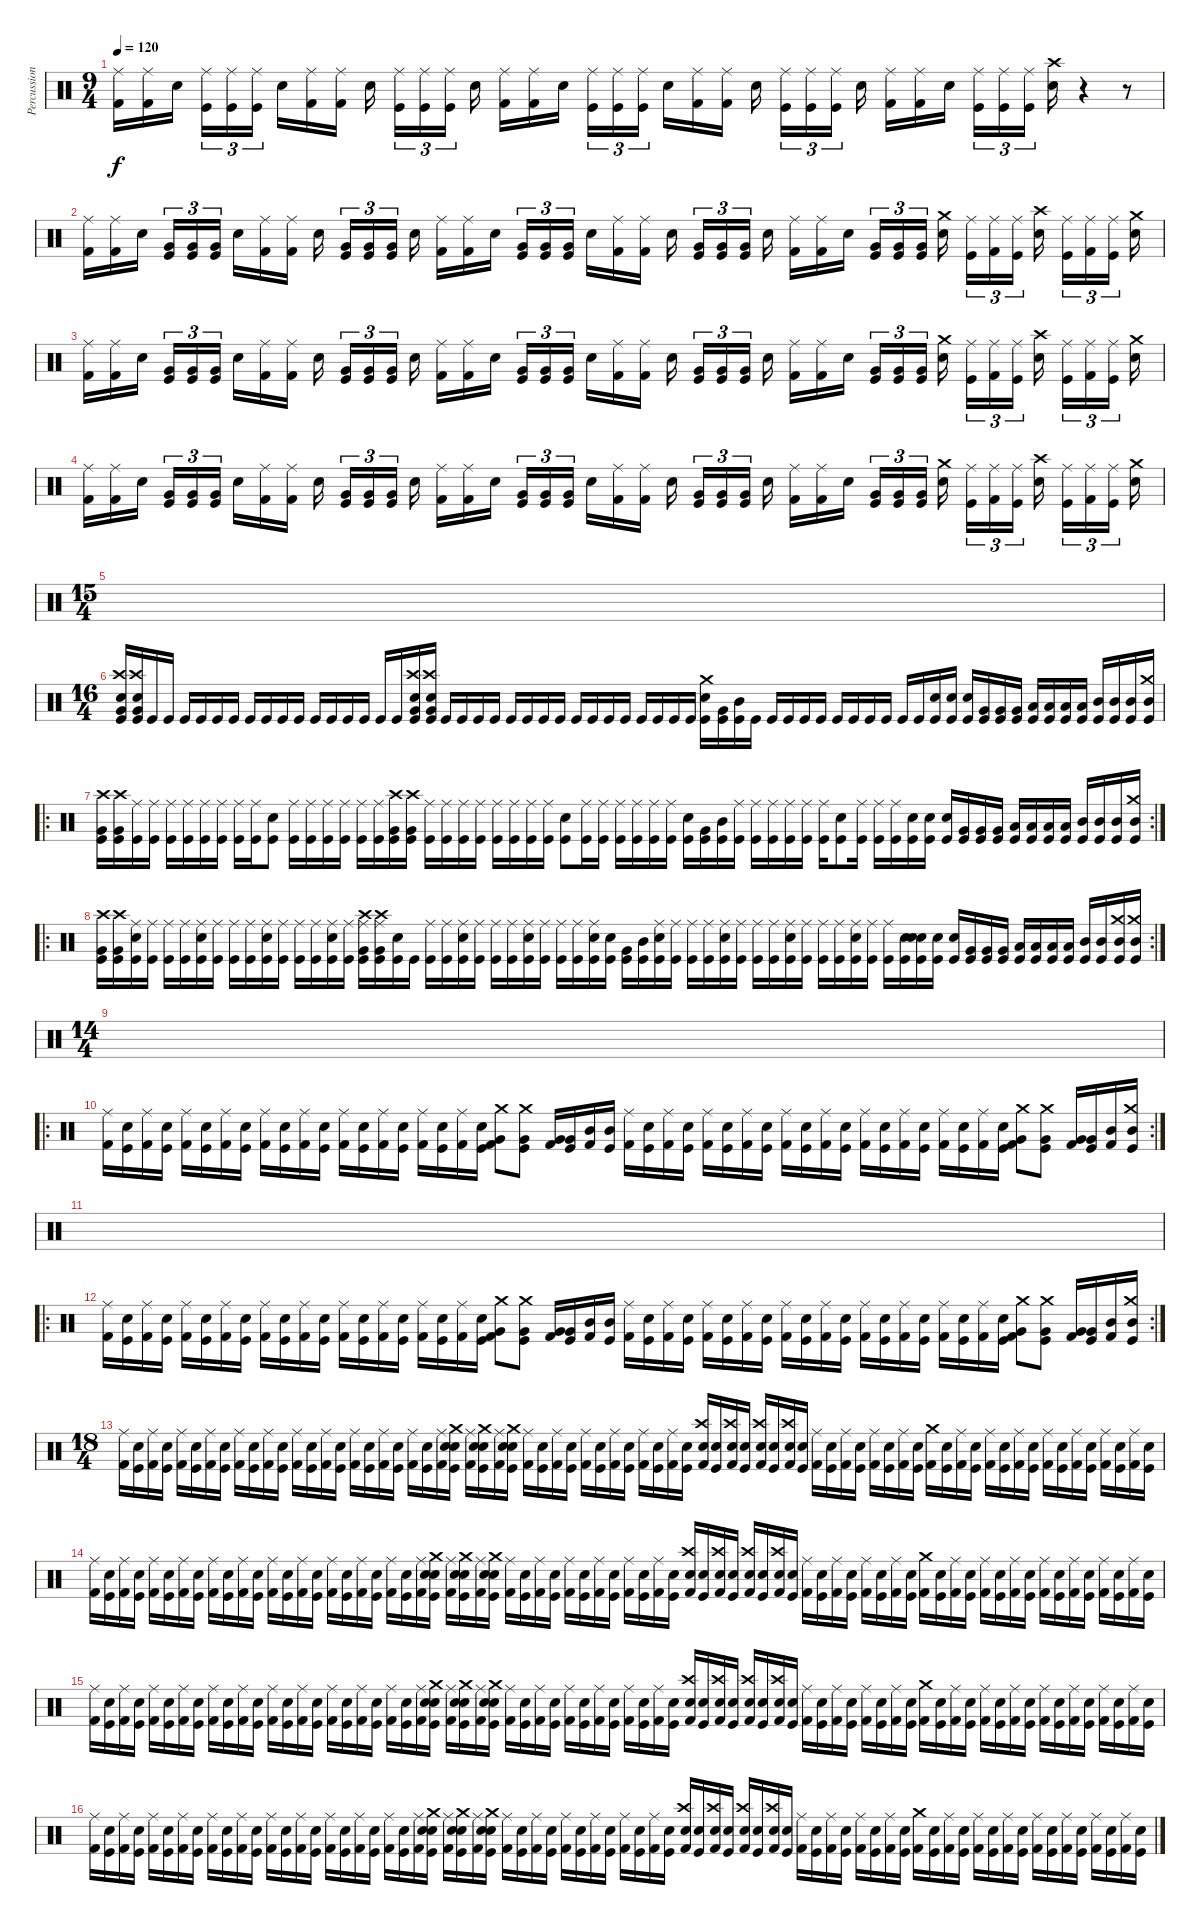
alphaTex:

\track ("Percussions" "Percussion") {instrument percussion}
\staff {score}
\articulation defaults
\ts (9 4)
\tempo 120
\clef neutral
\ks c
("Kick (hit) 2" "Ride (middle)").16{dy f} ("Kick (hit) 2" "Ride (middle)").16 "Electric Snare (hit)".16 ("Kick (hit)" "Ride (middle)").16{tu (3 2)} ("Kick (hit)" "Ride (middle)").16{tu (3 2)} ("Kick (hit)" "Ride (middle)").16{tu (3 2)} "Electric Snare (hit)".16 ("Kick (hit) 2" "Ride (middle)").16 ("Kick (hit) 2" "Ride (middle)").16 "Electric Snare (hit)".16 ("Kick (hit)" "Ride (middle)").16{tu (3 2)} ("Kick (hit)" "Ride (middle)").16{tu (3 2)} ("Kick (hit)" "Ride (middle)").16{tu (3 2)} "Electric Snare (hit)".16 ("Kick (hit) 2" "Ride (middle)").16 ("Kick (hit) 2" "Ride (middle)").16 "Electric Snare (hit)".16 ("Kick (hit)" "Ride (middle)").16{tu (3 2)} ("Kick (hit)" "Ride (middle)").16{tu (3 2)} ("Kick (hit)" "Ride (middle)").16{tu (3 2)} "Electric Snare (hit)".16 ("Kick (hit) 2" "Ride (middle)").16 ("Kick (hit) 2" "Ride (middle)").16 "Electric Snare (hit)".16 ("Kick (hit)" "Ride (middle)").16{tu (3 2)} ("Kick (hit)" "Ride (middle)").16{tu (3 2)} ("Kick (hit)" "Ride (middle)").16{tu (3 2)} "Electric Snare (hit)".16 ("Kick (hit) 2" "Ride (middle)").16 ("Kick (hit) 2" "Ride (middle)").16 "Electric Snare (hit)".16 ("Kick (hit)" "Ride (middle)").16{tu (3 2)} ("Kick (hit)" "Ride (middle)").16{tu (3 2)} ("Kick (hit)" "Ride (middle)").16{tu (3 2)} ("Electric Snare (hit)" "Crash high (hit)").16 r.4 r.8 |
("Kick (hit) 2" "Ride (middle)").16 ("Kick (hit) 2" "Ride (middle)").16 "Electric Snare (hit)".16 ("Kick (hit)" "Very Low Tom (hit)").16{tu (3 2)} ("Kick (hit)" "Very Low Tom (hit)").16{tu (3 2)} ("Kick (hit)" "Very Low Tom (hit)").16{tu (3 2)} "Electric Snare (hit)".16 ("Kick (hit) 2" "Ride (middle)").16 ("Kick (hit) 2" "Ride (middle)").16 "Electric Snare (hit)".16 ("Kick (hit)" "Very Low Tom (hit)").16{tu (3 2)} ("Kick (hit)" "Very Low Tom (hit)").16{tu (3 2)} ("Kick (hit)" "Very Low Tom (hit)").16{tu (3 2)} "Electric Snare (hit)".16 ("Kick (hit) 2" "Ride (middle)").16 ("Kick (hit) 2" "Ride (middle)").16 "Electric Snare (hit)".16 ("Kick (hit)" "Very Low Tom (hit)").16{tu (3 2)} ("Kick (hit)" "Very Low Tom (hit)").16{tu (3 2)} ("Kick (hit)" "Very Low Tom (hit)").16{tu (3 2)} "Electric Snare (hit)".16 ("Kick (hit) 2" "Ride (middle)").16 ("Kick (hit) 2" "Ride (middle)").16 "Electric Snare (hit)".16 ("Kick (hit)" "Very Low Tom (hit)").16{tu (3 2)} ("Kick (hit)" "Very Low Tom (hit)").16{tu (3 2)} ("Kick (hit)" "Very Low Tom (hit)").16{tu (3 2)} "Electric Snare (hit)".16 ("Kick (hit) 2" "Ride (middle)").16 ("Kick (hit) 2" "Ride (middle)").16 "Electric Snare (hit)".16 ("Kick (hit)" "Very Low Tom (hit)").16{tu (3 2)} ("Kick (hit)" "Very Low Tom (hit)").16{tu (3 2)} ("Kick (hit)" "Very Low Tom (hit)").16{tu (3 2)} ("Electric Snare (hit)" "Crash medium (hit)").16 ("Kick (hit)" "Ride (middle)").16{tu (3 2)} ("Kick (hit) 2" "Ride (middle)").16{tu (3 2)} ("Kick (hit)" "Ride (middle)").16{tu (3 2)} ("Electric Snare (hit)" "Crash high (hit)").16 ("Kick (hit)" "Ride (middle)").16{tu (3 2)} ("Kick (hit) 2" "Ride (middle)").16{tu (3 2)} ("Kick (hit)" "Ride (middle)").16{tu (3 2)} ("Electric Snare (hit)" "Crash medium (hit)").16 |
("Kick (hit) 2" "Ride (middle)").16 ("Kick (hit) 2" "Ride (middle)").16 "Electric Snare (hit)".16 ("Kick (hit)" "Very Low Tom (hit)").16{tu (3 2)} ("Kick (hit)" "Very Low Tom (hit)").16{tu (3 2)} ("Kick (hit)" "Very Low Tom (hit)").16{tu (3 2)} "Electric Snare (hit)".16 ("Kick (hit) 2" "Ride (middle)").16 ("Kick (hit) 2" "Ride (middle)").16 "Electric Snare (hit)".16 ("Kick (hit)" "Very Low Tom (hit)").16{tu (3 2)} ("Kick (hit)" "Very Low Tom (hit)").16{tu (3 2)} ("Kick (hit)" "Very Low Tom (hit)").16{tu (3 2)} "Electric Snare (hit)".16 ("Kick (hit) 2" "Ride (middle)").16 ("Kick (hit) 2" "Ride (middle)").16 "Electric Snare (hit)".16 ("Kick (hit)" "Very Low Tom (hit)").16{tu (3 2)} ("Kick (hit)" "Very Low Tom (hit)").16{tu (3 2)} ("Kick (hit)" "Very Low Tom (hit)").16{tu (3 2)} "Electric Snare (hit)".16 ("Kick (hit) 2" "Ride (middle)").16 ("Kick (hit) 2" "Ride (middle)").16 "Electric Snare (hit)".16 ("Kick (hit)" "Very Low Tom (hit)").16{tu (3 2)} ("Kick (hit)" "Very Low Tom (hit)").16{tu (3 2)} ("Kick (hit)" "Very Low Tom (hit)").16{tu (3 2)} "Electric Snare (hit)".16 ("Kick (hit) 2" "Ride (middle)").16 ("Kick (hit) 2" "Ride (middle)").16 "Electric Snare (hit)".16 ("Kick (hit)" "Very Low Tom (hit)").16{tu (3 2)} ("Kick (hit)" "Very Low Tom (hit)").16{tu (3 2)} ("Kick (hit)" "Very Low Tom (hit)").16{tu (3 2)} ("Electric Snare (hit)" "Crash medium (hit)").16 ("Kick (hit)" "Ride (middle)").16{tu (3 2)} ("Kick (hit) 2" "Ride (middle)").16{tu (3 2)} ("Kick (hit)" "Ride (middle)").16{tu (3 2)} ("Electric Snare (hit)" "Crash high (hit)").16 ("Kick (hit)" "Ride (middle)").16{tu (3 2)} ("Kick (hit) 2" "Ride (middle)").16{tu (3 2)} ("Kick (hit)" "Ride (middle)").16{tu (3 2)} ("Electric Snare (hit)" "Crash medium (hit)").16 |
("Kick (hit) 2" "Ride (middle)").16 ("Kick (hit) 2" "Ride (middle)").16 "Electric Snare (hit)".16 ("Kick (hit)" "Very Low Tom (hit)").16{tu (3 2)} ("Kick (hit)" "Very Low Tom (hit)").16{tu (3 2)} ("Kick (hit)" "Very Low Tom (hit)").16{tu (3 2)} "Electric Snare (hit)".16 ("Kick (hit) 2" "Ride (middle)").16 ("Kick (hit) 2" "Ride (middle)").16 "Electric Snare (hit)".16 ("Kick (hit)" "Very Low Tom (hit)").16{tu (3 2)} ("Kick (hit)" "Very Low Tom (hit)").16{tu (3 2)} ("Kick (hit)" "Very Low Tom (hit)").16{tu (3 2)} "Electric Snare (hit)".16 ("Kick (hit) 2" "Ride (middle)").16 ("Kick (hit) 2" "Ride (middle)").16 "Electric Snare (hit)".16 ("Kick (hit)" "Very Low Tom (hit)").16{tu (3 2)} ("Kick (hit)" "Very Low Tom (hit)").16{tu (3 2)} ("Kick (hit)" "Very Low Tom (hit)").16{tu (3 2)} "Electric Snare (hit)".16 ("Kick (hit) 2" "Ride (middle)").16 ("Kick (hit) 2" "Ride (middle)").16 "Electric Snare (hit)".16 ("Kick (hit)" "Very Low Tom (hit)").16{tu (3 2)} ("Kick (hit)" "Very Low Tom (hit)").16{tu (3 2)} ("Kick (hit)" "Very Low Tom (hit)").16{tu (3 2)} "Electric Snare (hit)".16 ("Kick (hit) 2" "Ride (middle)").16 ("Kick (hit) 2" "Ride (middle)").16 "Electric Snare (hit)".16 ("Kick (hit)" "Very Low Tom (hit)").16{tu (3 2)} ("Kick (hit)" "Very Low Tom (hit)").16{tu (3 2)} ("Kick (hit)" "Very Low Tom (hit)").16{tu (3 2)} ("Electric Snare (hit)" "Crash medium (hit)").16 ("Kick (hit)" "Ride (middle)").16{tu (3 2)} ("Kick (hit) 2" "Ride (middle)").16{tu (3 2)} ("Kick (hit)" "Ride (middle)").16{tu (3 2)} ("Electric Snare (hit)" "Crash high (hit)").16 ("Kick (hit)" "Ride (middle)").16{tu (3 2)} ("Kick (hit) 2" "Ride (middle)").16{tu (3 2)} ("Kick (hit)" "Ride (middle)").16{tu (3 2)} ("Electric Snare (hit)" "Crash medium (hit)").16 |
\ts (15 4)
|
\ts (16 4)
("Kick (hit)" "Electric Snare (hit)" "Very Low Tom (hit)" "Crash high (hit)").16 ("Kick (hit)" "Electric Snare (hit)" "Very Low Tom (hit)" "Crash high (hit)").16 "Kick (hit)".16 "Kick (hit)".16 "Kick (hit)".16 "Kick (hit)".16 "Kick (hit)".16 "Kick (hit)".16 "Kick (hit)".16 "Kick (hit)".16 "Kick (hit)".16 "Kick (hit)".16 "Kick (hit)".16 "Kick (hit)".16 "Kick (hit)".16 "Kick (hit)".16 "Kick (hit)".16 "Kick (hit)".16 ("Kick (hit)" "Electric Snare (hit)" "Very Low Tom (hit)" "Crash high (hit)").16 ("Kick (hit)" "Electric Snare (hit)" "Very Low Tom (hit)" "Crash high (hit)").16 "Kick (hit)".16 "Kick (hit)".16 "Kick (hit)".16 "Kick (hit)".16 "Kick (hit)".16 "Kick (hit)".16 "Kick (hit)".16 "Kick (hit)".16 "Kick (hit)".16 "Kick (hit)".16 "Kick (hit)".16 "Kick (hit)".16 "Kick (hit)".16 "Kick (hit)".16 "Kick (hit)".16 "Kick (hit)".16 ("Kick (hit)" "Electric Snare (hit)" "Crash medium (hit)").16 ("Kick (hit)" "Very Low Tom (hit)").16 ("Kick (hit)" "Mid Tom (hit)").16 "Kick (hit)".16 "Kick (hit)".16 "Kick (hit)".16 "Kick (hit)".16 "Kick (hit)".16 "Kick (hit)".16 "Kick (hit)".16 "Kick (hit)".16 "Kick (hit)".16 "Kick (hit)".16 "Kick (hit)".16 ("Kick (hit)" "Snare (hit) 2").16 ("Kick (hit)" "Snare (hit) 2").16 ("Kick (hit)" "Snare (hit) 2").16 ("Kick (hit)" "Very Low Tom (hit)").16 ("Kick (hit)" "Very Low Tom (hit)").16 ("Kick (hit)" "Very Low Tom (hit)").16 ("Kick (hit)" "Low Tom (hit)").16 ("Kick (hit)" "Low Tom (hit)").16 ("Kick (hit)" "Low Tom (hit)").16 ("Kick (hit)" "Low Tom (hit)").16 ("Kick (hit)" "Mid Tom (hit)").16 ("Kick (hit)" "Mid Tom (hit)").16 ("Kick (hit)" "Mid Tom (hit)").16 ("Kick (hit)" "Mid Tom (hit)" "Crash medium (hit)").16 |
\ro
\rc 2
("Kick (hit)" "Very Low Tom (hit)" "Crash high (hit)").16 ("Kick (hit)" "Very Low Tom (hit)" "Crash high (hit)").16 ("Kick (hit)" "Ride (middle)").16 ("Kick (hit)" "Ride (middle)").16 ("Kick (hit)" "Ride (middle)").16 ("Kick (hit)" "Ride (middle)").16 ("Kick (hit)" "Ride (middle)").16 ("Kick (hit)" "Ride (middle)").16 ("Kick (hit)" "Ride (middle)").16 ("Kick (hit)" "Ride (middle)").16 ("Kick (hit)" "Electric Snare (hit)").8 ("Kick (hit)" "Ride (middle)").16 ("Kick (hit)" "Ride (middle)").16 ("Kick (hit)" "Ride (middle)").16 ("Kick (hit)" "Ride (middle)").16 ("Kick (hit)" "Ride (middle)").16 ("Kick (hit)" "Ride (middle)").16 ("Kick (hit)" "Very Low Tom (hit)" "Crash high (hit)").16 ("Kick (hit)" "Very Low Tom (hit)" "Crash high (hit)").16 ("Kick (hit)" "Ride (middle)").16 ("Kick (hit)" "Ride (middle)").16 ("Kick (hit)" "Ride (middle)").16 ("Kick (hit)" "Ride (middle)").16 ("Kick (hit)" "Ride (middle)").16 ("Kick (hit)" "Ride (middle)").16 ("Kick (hit)" "Ride (middle)").16 ("Kick (hit)" "Ride (middle)").16 ("Kick (hit)" "Electric Snare (hit)").8 ("Kick (hit)" "Ride (middle)").16 ("Kick (hit)" "Ride (middle)").16 ("Kick (hit)" "Ride (middle)").16 ("Kick (hit)" "Ride (middle)").16 ("Kick (hit)" "Ride (middle)").16 ("Kick (hit)" "Ride (middle)").16 ("Kick (hit)" "Snare (hit) 2").16 ("Kick (hit)" "Very Low Tom (hit)").16 ("Kick (hit)" "Mid Tom (hit)").16 ("Kick (hit)" "Ride (middle)").16 ("Kick (hit)" "Ride (middle)").16 ("Kick (hit)" "Ride (middle)").16 ("Kick (hit)" "Ride (middle)").16 ("Kick (hit)" "Ride (middle)").16 ("Kick (hit)" "Ride (middle)").16 ("Kick (hit)" "Electric Snare (hit)").8 ("Kick (hit)" "Ride (middle)").16 ("Kick (hit)" "Ride (middle)").16 ("Kick (hit)" "Ride (middle)").16 ("Kick (hit)" "Snare (hit) 2").16 ("Kick (hit)" "Snare (hit) 2").16 ("Kick (hit)" "Snare (hit) 2").16 ("Kick (hit)" "Very Low Tom (hit)").16 ("Kick (hit)" "Very Low Tom (hit)").16 ("Kick (hit)" "Very Low Tom (hit)").16 ("Kick (hit)" "Low Tom (hit)").16 ("Kick (hit)" "Low Tom (hit)").16 ("Kick (hit)" "Low Tom (hit)").16 ("Kick (hit)" "Low Tom (hit)").16 ("Kick (hit)" "Mid Tom (hit)").16 ("Kick (hit)" "Mid Tom (hit)").16 ("Kick (hit)" "Mid Tom (hit)").16 ("Kick (hit)" "Mid Tom (hit)" "Crash medium (hit)").16 |
\ro
\rc 2
("Kick (hit)" "Very Low Tom (hit)" "Crash high (hit)").16 ("Kick (hit)" "Very Low Tom (hit)" "Crash high (hit)").16 ("Kick (hit)" "Ride (middle)" "Electric Snare (hit)").16 ("Kick (hit)" "Ride (middle)").16 ("Kick (hit)" "Ride (middle)").16 ("Kick (hit)" "Ride (middle)").16 ("Kick (hit)" "Ride (middle)" "Electric Snare (hit)").16 ("Kick (hit)" "Ride (middle)").16 ("Kick (hit)" "Ride (middle)").16 ("Kick (hit)" "Ride (middle)").16 ("Kick (hit)" "Ride (middle)" "Electric Snare (hit)").16 ("Kick (hit)" "Ride (middle)").16 ("Kick (hit)" "Ride (middle)").16 ("Kick (hit)" "Ride (middle)").16 ("Kick (hit)" "Ride (middle)" "Electric Snare (hit)").16 ("Kick (hit)" "Ride (middle)").16 ("Kick (hit)" "Ride (middle)" "Very Low Tom (hit)" "Crash high (hit)").16 ("Kick (hit)" "Ride (middle)" "Very Low Tom (hit)" "Crash high (hit)").16 ("Kick (hit)" "Electric Snare (hit)").16 "Kick (hit)".16 ("Kick (hit)" "Ride (middle)").16 ("Kick (hit)" "Ride (middle)").16 ("Kick (hit)" "Ride (middle)" "Electric Snare (hit)").16 ("Kick (hit)" "Ride (middle)").16 ("Kick (hit)" "Ride (middle)").16 ("Kick (hit)" "Ride (middle)").16 ("Kick (hit)" "Ride (middle)" "Electric Snare (hit)").16 ("Kick (hit)" "Ride (middle)").16 ("Kick (hit)" "Ride (middle)").16 ("Kick (hit)" "Ride (middle)").16 ("Kick (hit)" "Ride (middle)" "Electric Snare (hit)").16 ("Kick (hit)" "Snare (hit) 2").16 ("Kick (hit)" "Very Low Tom (hit)").16 ("Kick (hit)" "Mid Tom (hit)").16 ("Kick (hit)" "Ride (middle)" "Electric Snare (hit)").16 ("Kick (hit)" "Ride (middle)").16 ("Kick (hit)" "Ride (middle)").16 ("Kick (hit)" "Ride (middle)").16 ("Kick (hit)" "Ride (middle)" "Electric Snare (hit)").16 ("Kick (hit)" "Ride (middle)").16 ("Kick (hit)" "Ride (middle)").16 ("Kick (hit)" "Ride (middle)").16 ("Kick (hit)" "Ride (middle)" "Electric Snare (hit)").16 ("Kick (hit)" "Ride (middle)").16 ("Kick (hit)" "Ride (middle)").16 ("Kick (hit)" "Ride (middle)").16 ("Kick (hit)" "Ride (middle)" "Electric Snare (hit)").16 ("Kick (hit)" "Ride (middle)").16 ("Kick (hit)" "Ride (middle)").16 ("Kick (hit)" "Snare (hit) 2").16 ("Kick (hit)" "Snare (hit) 2" "Electric Snare (hit)").16 ("Kick (hit)" "Snare (hit) 2").16 ("Kick (hit)" "Snare (hit) 2").16 ("Kick (hit)" "Very Low Tom (hit)").16 ("Kick (hit)" "Very Low Tom (hit)").16 ("Kick (hit)" "Very Low Tom (hit)").16 ("Kick (hit)" "Low Tom (hit)").16 ("Kick (hit)" "Low Tom (hit)").16 ("Kick (hit)" "Low Tom (hit)").16 ("Kick (hit)" "Low Tom (hit)").16 ("Kick (hit)" "Mid Tom (hit)").16 ("Kick (hit)" "Mid Tom (hit)").16 ("Kick (hit)" "Mid Tom (hit)" "Crash medium (hit)").16 ("Kick (hit)" "Mid Tom (hit)" "Crash medium (hit)").16 |
\ts (14 4)
|
\ro
\rc 2
("Kick (hit) 2" "Ride (middle)").16 ("Kick (hit)" "Snare (hit) 2").16 ("Kick (hit) 2" "Ride (middle)").16 ("Kick (hit)" "Snare (hit) 2").16 ("Kick (hit) 2" "Ride (middle)").16 ("Kick (hit)" "Snare (hit) 2").16 ("Kick (hit) 2" "Ride (middle)").16 ("Kick (hit)" "Snare (hit) 2").16 ("Kick (hit) 2" "Ride (middle)").16 ("Kick (hit)" "Snare (hit) 2").16 ("Kick (hit) 2" "Ride (middle)").16 ("Kick (hit)" "Snare (hit) 2").16 ("Kick (hit) 2" "Ride (middle)").16 ("Kick (hit)" "Snare (hit) 2").16 ("Kick (hit) 2" "Ride (middle)").16 ("Kick (hit)" "Snare (hit) 2").16 ("Kick (hit) 2" "Ride (middle)").16 ("Kick (hit)" "Snare (hit) 2").16 ("Kick (hit) 2" "Ride (middle)").16 ("Kick (hit)" "Snare (hit) 2").16 ("Kick (hit) 2" "Very Low Tom (hit)" "Crash medium (hit)").8 ("Kick (hit)" "Very Low Tom (hit)" "Crash medium (hit)").8 ("Kick (hit) 2" "Very Low Tom (hit)").16 ("Kick (hit)" "Very Low Tom (hit)").16 ("Kick (hit) 2" "Mid Tom (hit)").16 ("Kick (hit)" "Mid Tom (hit)").16 ("Kick (hit) 2" "Ride (middle)").16 ("Kick (hit)" "Snare (hit) 2").16 ("Kick (hit) 2" "Ride (middle)").16 ("Kick (hit)" "Snare (hit) 2").16 ("Kick (hit) 2" "Ride (middle)").16 ("Kick (hit)" "Snare (hit) 2").16 ("Kick (hit) 2" "Ride (middle)").16 ("Kick (hit)" "Snare (hit) 2").16 ("Kick (hit) 2" "Ride (middle)").16 ("Kick (hit)" "Snare (hit) 2").16 ("Kick (hit) 2" "Ride (middle)").16 ("Kick (hit)" "Snare (hit) 2").16 ("Kick (hit) 2" "Ride (middle)").16 ("Kick (hit)" "Snare (hit) 2").16 ("Kick (hit) 2" "Ride (middle)").16 ("Kick (hit)" "Snare (hit) 2").16 ("Kick (hit) 2" "Ride (middle)").16 ("Kick (hit)" "Snare (hit) 2").16 ("Kick (hit) 2" "Ride (middle)").16 ("Kick (hit)" "Snare (hit) 2").16 ("Kick (hit) 2" "Very Low Tom (hit)" "Crash medium (hit)").8 ("Kick (hit)" "Very Low Tom (hit)" "Crash medium (hit)").8 ("Kick (hit) 2" "Very Low Tom (hit)").16 ("Kick (hit)" "Very Low Tom (hit)").16 ("Kick (hit) 2" "Mid Tom (hit)").16 ("Kick (hit)" "Mid Tom (hit)" "Crash medium (hit)").16 |
|
\ro
\rc 2
("Kick (hit) 2" "Ride (middle)").16 ("Kick (hit)" "Snare (hit) 2").16 ("Kick (hit) 2" "Ride (middle)").16 ("Kick (hit)" "Snare (hit) 2").16 ("Kick (hit) 2" "Ride (middle)").16 ("Kick (hit)" "Snare (hit) 2").16 ("Kick (hit) 2" "Ride (middle)").16 ("Kick (hit)" "Snare (hit) 2").16 ("Kick (hit) 2" "Ride (middle)").16 ("Kick (hit)" "Snare (hit) 2").16 ("Kick (hit) 2" "Ride (middle)").16 ("Kick (hit)" "Snare (hit) 2").16 ("Kick (hit) 2" "Ride (middle)").16 ("Kick (hit)" "Snare (hit) 2").16 ("Kick (hit) 2" "Ride (middle)").16 ("Kick (hit)" "Snare (hit) 2").16 ("Kick (hit) 2" "Ride (middle)").16 ("Kick (hit)" "Snare (hit) 2").16 ("Kick (hit) 2" "Ride (middle)").16 ("Kick (hit)" "Snare (hit) 2").16 ("Kick (hit) 2" "Very Low Tom (hit)" "Crash medium (hit)").8 ("Kick (hit)" "Very Low Tom (hit)" "Crash medium (hit)").8 ("Kick (hit) 2" "Very Low Tom (hit)").16 ("Kick (hit)" "Very Low Tom (hit)").16 ("Kick (hit) 2" "Mid Tom (hit)").16 ("Kick (hit)" "Mid Tom (hit)").16 ("Kick (hit) 2" "Ride (middle)").16 ("Kick (hit)" "Snare (hit) 2").16 ("Kick (hit) 2" "Ride (middle)").16 ("Kick (hit)" "Snare (hit) 2").16 ("Kick (hit) 2" "Ride (middle)").16 ("Kick (hit)" "Snare (hit) 2").16 ("Kick (hit) 2" "Ride (middle)").16 ("Kick (hit)" "Snare (hit) 2").16 ("Kick (hit) 2" "Ride (middle)").16 ("Kick (hit)" "Snare (hit) 2").16 ("Kick (hit) 2" "Ride (middle)").16 ("Kick (hit)" "Snare (hit) 2").16 ("Kick (hit) 2" "Ride (middle)").16 ("Kick (hit)" "Snare (hit) 2").16 ("Kick (hit) 2" "Ride (middle)").16 ("Kick (hit)" "Snare (hit) 2").16 ("Kick (hit) 2" "Ride (middle)").16 ("Kick (hit)" "Snare (hit) 2").16 ("Kick (hit) 2" "Ride (middle)").16 ("Kick (hit)" "Snare (hit) 2").16 ("Kick (hit) 2" "Very Low Tom (hit)" "Crash medium (hit)").8 ("Kick (hit)" "Very Low Tom (hit)" "Crash medium (hit)").8 ("Kick (hit) 2" "Very Low Tom (hit)").16 ("Kick (hit)" "Very Low Tom (hit)").16 ("Kick (hit) 2" "Mid Tom (hit)").16 ("Kick (hit)" "Mid Tom (hit)" "Crash medium (hit)").16 |
\ts (18 4)
("Kick (hit) 2" "Ride (middle)").16 ("Kick (hit)" "Snare (hit) 2").16 ("Kick (hit) 2" "Ride (middle)").16 ("Kick (hit)" "Snare (hit) 2").16 ("Kick (hit) 2" "Ride (middle)").16 ("Kick (hit)" "Snare (hit) 2").16 ("Kick (hit) 2" "Ride (middle)").16 ("Kick (hit)" "Snare (hit) 2").16 ("Kick (hit) 2" "Ride (middle)").16 ("Kick (hit)" "Snare (hit) 2").16 ("Kick (hit) 2" "Ride (middle)").16 ("Kick (hit)" "Snare (hit) 2").16 ("Kick (hit) 2" "Ride (middle)").16 ("Kick (hit)" "Snare (hit) 2").16 ("Kick (hit) 2" "Ride (middle)").16 ("Kick (hit)" "Snare (hit) 2").16 ("Kick (hit) 2" "Ride (middle)").16 ("Kick (hit)" "Snare (hit) 2").16 ("Kick (hit) 2" "Ride (middle)").16 ("Kick (hit)" "Snare (hit) 2").16 ("Kick (hit) 2" "Ride (middle)").16 ("Kick (hit)" "Snare (hit) 2").16 ("Kick (hit) 2" "Ride (middle)").16 ("Kick (hit)" "Snare (hit) 2" "Crash medium (hit)" "Snare (hit) 2").16 ("Kick (hit) 2" "Ride (middle)").16 ("Kick (hit)" "Snare (hit) 2" "Crash medium (hit)" "Snare (hit) 2").16 ("Kick (hit) 2" "Ride (middle)").16 ("Kick (hit)" "Snare (hit) 2" "Crash medium (hit)" "Snare (hit) 2").16 ("Kick (hit) 2" "Ride (middle)").16 ("Kick (hit)" "Snare (hit) 2").16 ("Kick (hit) 2" "Ride (middle)").16 ("Kick (hit)" "Snare (hit) 2").16 ("Kick (hit) 2" "Ride (middle)").16 ("Kick (hit)" "Snare (hit) 2").16 ("Kick (hit) 2" "Ride (middle)").16 ("Kick (hit)" "Snare (hit) 2").16 ("Kick (hit) 2" "Ride (middle)").16 ("Kick (hit)" "Snare (hit) 2").16 ("Kick (hit) 2" "Ride (middle)").16 ("Kick (hit)" "Snare (hit) 2").16 ("Kick (hit) 2" "Crash high (hit)" "Snare (hit) 2").16 ("Kick (hit)" "Snare (hit) 2").16 ("Kick (hit) 2" "Crash high (hit)" "Snare (hit) 2").16 ("Kick (hit)" "Snare (hit) 2").16 ("Kick (hit) 2" "Crash high (hit)" "Snare (hit) 2").16 ("Kick (hit)" "Snare (hit) 2").16 ("Kick (hit) 2" "Crash high (hit)" "Snare (hit) 2").16 ("Kick (hit)" "Snare (hit) 2").16 ("Kick (hit) 2" "Ride (middle)").16 ("Kick (hit)" "Snare (hit) 2").16 ("Kick (hit) 2" "Ride (middle)").16 ("Kick (hit)" "Snare (hit) 2").16 ("Kick (hit) 2" "Ride (middle)").16 ("Kick (hit)" "Snare (hit) 2").16 ("Kick (hit) 2" "Ride (middle)").16 ("Kick (hit)" "Snare (hit) 2").16 ("Kick (hit) 2" "Crash medium (hit)").16 ("Kick (hit)" "Snare (hit) 2").16 ("Kick (hit) 2" "Ride (middle)").16 ("Kick (hit)" "Snare (hit) 2").16 ("Kick (hit) 2" "Ride (middle)").16 ("Kick (hit)" "Snare (hit) 2").16 ("Kick (hit) 2" "Ride (middle)").16 ("Kick (hit)" "Snare (hit) 2").16 ("Kick (hit) 2" "Ride (middle)").16 ("Kick (hit)" "Snare (hit) 2").16 ("Kick (hit) 2" "Ride (middle)").16 ("Kick (hit)" "Snare (hit) 2").16 ("Kick (hit) 2" "Ride (middle)").16 ("Kick (hit)" "Snare (hit) 2").16 ("Kick (hit) 2" "Ride (middle)").16 ("Kick (hit)" "Snare (hit) 2").16 |
("Kick (hit) 2" "Ride (middle)").16 ("Kick (hit)" "Snare (hit) 2").16 ("Kick (hit) 2" "Ride (middle)").16 ("Kick (hit)" "Snare (hit) 2").16 ("Kick (hit) 2" "Ride (middle)").16 ("Kick (hit)" "Snare (hit) 2").16 ("Kick (hit) 2" "Ride (middle)").16 ("Kick (hit)" "Snare (hit) 2").16 ("Kick (hit) 2" "Ride (middle)").16 ("Kick (hit)" "Snare (hit) 2").16 ("Kick (hit) 2" "Ride (middle)").16 ("Kick (hit)" "Snare (hit) 2").16 ("Kick (hit) 2" "Ride (middle)").16 ("Kick (hit)" "Snare (hit) 2").16 ("Kick (hit) 2" "Ride (middle)").16 ("Kick (hit)" "Snare (hit) 2").16 ("Kick (hit) 2" "Ride (middle)").16 ("Kick (hit)" "Snare (hit) 2").16 ("Kick (hit) 2" "Ride (middle)").16 ("Kick (hit)" "Snare (hit) 2").16 ("Kick (hit) 2" "Ride (middle)").16 ("Kick (hit)" "Snare (hit) 2").16 ("Kick (hit) 2" "Ride (middle)").16 ("Kick (hit)" "Snare (hit) 2" "Crash medium (hit)" "Snare (hit) 2").16 ("Kick (hit) 2" "Ride (middle)").16 ("Kick (hit)" "Snare (hit) 2" "Crash medium (hit)" "Snare (hit) 2").16 ("Kick (hit) 2" "Ride (middle)").16 ("Kick (hit)" "Snare (hit) 2" "Crash medium (hit)" "Snare (hit) 2").16 ("Kick (hit) 2" "Ride (middle)").16 ("Kick (hit)" "Snare (hit) 2").16 ("Kick (hit) 2" "Ride (middle)").16 ("Kick (hit)" "Snare (hit) 2").16 ("Kick (hit) 2" "Ride (middle)").16 ("Kick (hit)" "Snare (hit) 2").16 ("Kick (hit) 2" "Ride (middle)").16 ("Kick (hit)" "Snare (hit) 2").16 ("Kick (hit) 2" "Ride (middle)").16 ("Kick (hit)" "Snare (hit) 2").16 ("Kick (hit) 2" "Ride (middle)").16 ("Kick (hit)" "Snare (hit) 2").16 ("Kick (hit) 2" "Crash high (hit)" "Snare (hit) 2").16 ("Kick (hit)" "Snare (hit) 2").16 ("Kick (hit) 2" "Crash high (hit)" "Snare (hit) 2").16 ("Kick (hit)" "Snare (hit) 2").16 ("Kick (hit) 2" "Crash high (hit)" "Snare (hit) 2").16 ("Kick (hit)" "Snare (hit) 2").16 ("Kick (hit) 2" "Crash high (hit)" "Snare (hit) 2").16 ("Kick (hit)" "Snare (hit) 2").16 ("Kick (hit) 2" "Ride (middle)").16 ("Kick (hit)" "Snare (hit) 2").16 ("Kick (hit) 2" "Ride (middle)").16 ("Kick (hit)" "Snare (hit) 2").16 ("Kick (hit) 2" "Ride (middle)").16 ("Kick (hit)" "Snare (hit) 2").16 ("Kick (hit) 2" "Ride (middle)").16 ("Kick (hit)" "Snare (hit) 2").16 ("Kick (hit) 2" "Crash medium (hit)").16 ("Kick (hit)" "Snare (hit) 2").16 ("Kick (hit) 2" "Ride (middle)").16 ("Kick (hit)" "Snare (hit) 2").16 ("Kick (hit) 2" "Ride (middle)").16 ("Kick (hit)" "Snare (hit) 2").16 ("Kick (hit) 2" "Ride (middle)").16 ("Kick (hit)" "Snare (hit) 2").16 ("Kick (hit) 2" "Ride (middle)").16 ("Kick (hit)" "Snare (hit) 2").16 ("Kick (hit) 2" "Ride (middle)").16 ("Kick (hit)" "Snare (hit) 2").16 ("Kick (hit) 2" "Ride (middle)").16 ("Kick (hit)" "Snare (hit) 2").16 ("Kick (hit) 2" "Ride (middle)").16 ("Kick (hit)" "Snare (hit) 2").16 |
("Kick (hit) 2" "Ride (middle)").16 ("Kick (hit)" "Snare (hit) 2").16 ("Kick (hit) 2" "Ride (middle)").16 ("Kick (hit)" "Snare (hit) 2").16 ("Kick (hit) 2" "Ride (middle)").16 ("Kick (hit)" "Snare (hit) 2").16 ("Kick (hit) 2" "Ride (middle)").16 ("Kick (hit)" "Snare (hit) 2").16 ("Kick (hit) 2" "Ride (middle)").16 ("Kick (hit)" "Snare (hit) 2").16 ("Kick (hit) 2" "Ride (middle)").16 ("Kick (hit)" "Snare (hit) 2").16 ("Kick (hit) 2" "Ride (middle)").16 ("Kick (hit)" "Snare (hit) 2").16 ("Kick (hit) 2" "Ride (middle)").16 ("Kick (hit)" "Snare (hit) 2").16 ("Kick (hit) 2" "Ride (middle)").16 ("Kick (hit)" "Snare (hit) 2").16 ("Kick (hit) 2" "Ride (middle)").16 ("Kick (hit)" "Snare (hit) 2").16 ("Kick (hit) 2" "Ride (middle)").16 ("Kick (hit)" "Snare (hit) 2").16 ("Kick (hit) 2" "Ride (middle)").16 ("Kick (hit)" "Snare (hit) 2" "Crash medium (hit)" "Snare (hit) 2").16 ("Kick (hit) 2" "Ride (middle)").16 ("Kick (hit)" "Snare (hit) 2" "Crash medium (hit)" "Snare (hit) 2").16 ("Kick (hit) 2" "Ride (middle)").16 ("Kick (hit)" "Snare (hit) 2" "Crash medium (hit)" "Snare (hit) 2").16 ("Kick (hit) 2" "Ride (middle)").16 ("Kick (hit)" "Snare (hit) 2").16 ("Kick (hit) 2" "Ride (middle)").16 ("Kick (hit)" "Snare (hit) 2").16 ("Kick (hit) 2" "Ride (middle)").16 ("Kick (hit)" "Snare (hit) 2").16 ("Kick (hit) 2" "Ride (middle)").16 ("Kick (hit)" "Snare (hit) 2").16 ("Kick (hit) 2" "Ride (middle)").16 ("Kick (hit)" "Snare (hit) 2").16 ("Kick (hit) 2" "Ride (middle)").16 ("Kick (hit)" "Snare (hit) 2").16 ("Kick (hit) 2" "Crash high (hit)" "Snare (hit) 2").16 ("Kick (hit)" "Snare (hit) 2").16 ("Kick (hit) 2" "Crash high (hit)" "Snare (hit) 2").16 ("Kick (hit)" "Snare (hit) 2").16 ("Kick (hit) 2" "Crash high (hit)" "Snare (hit) 2").16 ("Kick (hit)" "Snare (hit) 2").16 ("Kick (hit) 2" "Crash high (hit)" "Snare (hit) 2").16 ("Kick (hit)" "Snare (hit) 2").16 ("Kick (hit) 2" "Ride (middle)").16 ("Kick (hit)" "Snare (hit) 2").16 ("Kick (hit) 2" "Ride (middle)").16 ("Kick (hit)" "Snare (hit) 2").16 ("Kick (hit) 2" "Ride (middle)").16 ("Kick (hit)" "Snare (hit) 2").16 ("Kick (hit) 2" "Ride (middle)").16 ("Kick (hit)" "Snare (hit) 2").16 ("Kick (hit) 2" "Crash medium (hit)").16 ("Kick (hit)" "Snare (hit) 2").16 ("Kick (hit) 2" "Ride (middle)").16 ("Kick (hit)" "Snare (hit) 2").16 ("Kick (hit) 2" "Ride (middle)").16 ("Kick (hit)" "Snare (hit) 2").16 ("Kick (hit) 2" "Ride (middle)").16 ("Kick (hit)" "Snare (hit) 2").16 ("Kick (hit) 2" "Ride (middle)").16 ("Kick (hit)" "Snare (hit) 2").16 ("Kick (hit) 2" "Ride (middle)").16 ("Kick (hit)" "Snare (hit) 2").16 ("Kick (hit) 2" "Ride (middle)").16 ("Kick (hit)" "Snare (hit) 2").16 ("Kick (hit) 2" "Ride (middle)").16 ("Kick (hit)" "Snare (hit) 2").16 |
("Kick (hit) 2" "Ride (middle)").16 ("Kick (hit)" "Snare (hit) 2").16 ("Kick (hit) 2" "Ride (middle)").16 ("Kick (hit)" "Snare (hit) 2").16 ("Kick (hit) 2" "Ride (middle)").16 ("Kick (hit)" "Snare (hit) 2").16 ("Kick (hit) 2" "Ride (middle)").16 ("Kick (hit)" "Snare (hit) 2").16 ("Kick (hit) 2" "Ride (middle)").16 ("Kick (hit)" "Snare (hit) 2").16 ("Kick (hit) 2" "Ride (middle)").16 ("Kick (hit)" "Snare (hit) 2").16 ("Kick (hit) 2" "Ride (middle)").16 ("Kick (hit)" "Snare (hit) 2").16 ("Kick (hit) 2" "Ride (middle)").16 ("Kick (hit)" "Snare (hit) 2").16 ("Kick (hit) 2" "Ride (middle)").16 ("Kick (hit)" "Snare (hit) 2").16 ("Kick (hit) 2" "Ride (middle)").16 ("Kick (hit)" "Snare (hit) 2").16 ("Kick (hit) 2" "Ride (middle)").16 ("Kick (hit)" "Snare (hit) 2").16 ("Kick (hit) 2" "Ride (middle)").16 ("Kick (hit)" "Snare (hit) 2" "Crash medium (hit)" "Snare (hit) 2").16 ("Kick (hit) 2" "Ride (middle)").16 ("Kick (hit)" "Snare (hit) 2" "Crash medium (hit)" "Snare (hit) 2").16 ("Kick (hit) 2" "Ride (middle)").16 ("Kick (hit)" "Snare (hit) 2" "Crash medium (hit)" "Snare (hit) 2").16 ("Kick (hit) 2" "Ride (middle)").16 ("Kick (hit)" "Snare (hit) 2").16 ("Kick (hit) 2" "Ride (middle)").16 ("Kick (hit)" "Snare (hit) 2").16 ("Kick (hit) 2" "Ride (middle)").16 ("Kick (hit)" "Snare (hit) 2").16 ("Kick (hit) 2" "Ride (middle)").16 ("Kick (hit)" "Snare (hit) 2").16 ("Kick (hit) 2" "Ride (middle)").16 ("Kick (hit)" "Snare (hit) 2").16 ("Kick (hit) 2" "Ride (middle)").16 ("Kick (hit)" "Snare (hit) 2").16 ("Kick (hit) 2" "Crash high (hit)" "Snare (hit) 2").16 ("Kick (hit)" "Snare (hit) 2").16 ("Kick (hit) 2" "Crash high (hit)" "Snare (hit) 2").16 ("Kick (hit)" "Snare (hit) 2").16 ("Kick (hit) 2" "Crash high (hit)" "Snare (hit) 2").16 ("Kick (hit)" "Snare (hit) 2").16 ("Kick (hit) 2" "Crash high (hit)" "Snare (hit) 2").16 ("Kick (hit)" "Snare (hit) 2").16 ("Kick (hit) 2" "Ride (middle)").16 ("Kick (hit)" "Snare (hit) 2").16 ("Kick (hit) 2" "Ride (middle)").16 ("Kick (hit)" "Snare (hit) 2").16 ("Kick (hit) 2" "Ride (middle)").16 ("Kick (hit)" "Snare (hit) 2").16 ("Kick (hit) 2" "Ride (middle)").16 ("Kick (hit)" "Snare (hit) 2").16 ("Kick (hit) 2" "Crash medium (hit)").16 ("Kick (hit)" "Snare (hit) 2").16 ("Kick (hit) 2" "Ride (middle)").16 ("Kick (hit)" "Snare (hit) 2").16 ("Kick (hit) 2" "Ride (middle)").16 ("Kick (hit)" "Snare (hit) 2").16 ("Kick (hit) 2" "Ride (middle)").16 ("Kick (hit)" "Snare (hit) 2").16 ("Kick (hit) 2" "Ride (middle)").16 ("Kick (hit)" "Snare (hit) 2").16 ("Kick (hit) 2" "Ride (middle)").16 ("Kick (hit)" "Snare (hit) 2").16 ("Kick (hit) 2" "Ride (middle)").16 ("Kick (hit)" "Snare (hit) 2").16 ("Kick (hit) 2" "Ride (middle)").16 ("Kick (hit)" "Snare (hit) 2").16
